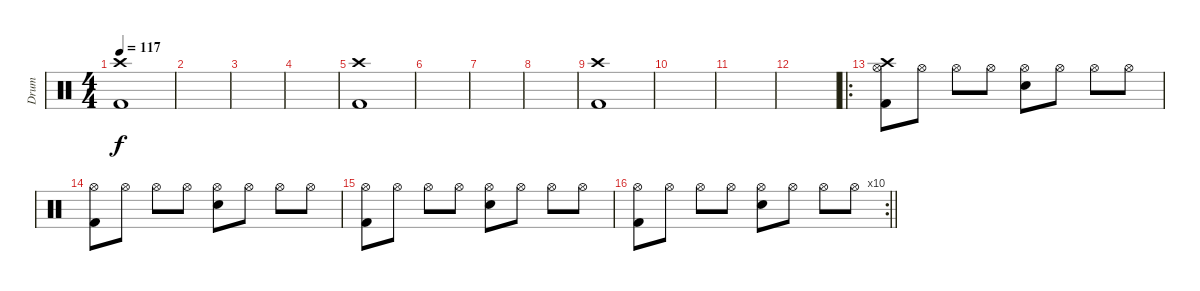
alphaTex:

\track ("Drum" "Drum") {instrument percussion}
\staff {score}
\articulation defaults
\ts (4 4)
\tempo 117
\clef neutral
\ks c
("Crash high (hit)" "Kick (hit) 2").1{dy f} |
|
|
|
("Crash high (hit)" "Kick (hit) 2").1 |
|
|
|
("Crash high (hit)" "Kick (hit) 2").1 |
|
|
|
\ro
("Hi-Hat (open)" "Crash high (hit)" "Kick (hit) 2").8 "Hi-Hat (open)".8 "Hi-Hat (open)".8 "Hi-Hat (open)".8 ("Hi-Hat (open)" "Snare (hit) 2").8 "Hi-Hat (open)".8 "Hi-Hat (open)".8 "Hi-Hat (open)".8 |
("Hi-Hat (open)" "Kick (hit) 2").8 "Hi-Hat (open)".8 "Hi-Hat (open)".8 "Hi-Hat (open)".8 ("Hi-Hat (open)" "Snare (hit) 2").8 "Hi-Hat (open)".8 "Hi-Hat (open)".8 "Hi-Hat (open)".8 |
("Hi-Hat (open)" "Kick (hit) 2").8 "Hi-Hat (open)".8 "Hi-Hat (open)".8 "Hi-Hat (open)".8 ("Hi-Hat (open)" "Snare (hit) 2").8 "Hi-Hat (open)".8 "Hi-Hat (open)".8 "Hi-Hat (open)".8 |
\rc 10
\barLineRight lightlight
("Hi-Hat (open)" "Kick (hit) 2").8 "Hi-Hat (open)".8 "Hi-Hat (open)".8 "Hi-Hat (open)".8 ("Hi-Hat (open)" "Snare (hit) 2").8 "Hi-Hat (open)".8 "Hi-Hat (open)".8 "Hi-Hat (open)".8
